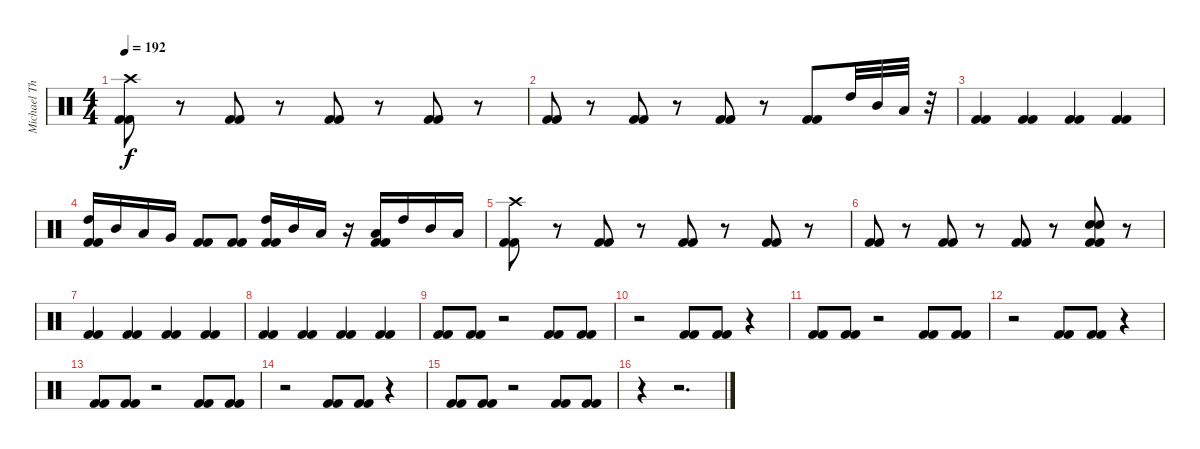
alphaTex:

\track ("Michael Thomas" "Michael Th") {instrument percussion}
\staff {score}
\articulation defaults
\ts (4 4)
\tempo 192
\clef neutral
\ks c
("Crash high (hit)" "Kick (hit) 2" "Kick (hit) 2").8{dy f} r.8 ("Kick (hit) 2" "Kick (hit) 2").8 r.8 ("Kick (hit) 2" "Kick (hit) 2").8 r.8 ("Kick (hit) 2" "Kick (hit) 2").8 r.8 |
("Kick (hit) 2" "Kick (hit) 2").8 r.8 ("Kick (hit) 2" "Kick (hit) 2").8 r.8 ("Kick (hit) 2" "Kick (hit) 2").8 r.8 ("Kick (hit) 2" "Kick (hit) 2").8 "High Tom (hit)".32 "Mid Tom (hit)".32 "Low Tom (hit)".32 r.32 |
("Kick (hit) 2" "Kick (hit) 2").4 ("Kick (hit) 2" "Kick (hit) 2").4 ("Kick (hit) 2" "Kick (hit) 2").4 ("Kick (hit) 2" "Kick (hit) 2").4 |
("High Tom (hit)" "Kick (hit) 2" "Kick (hit) 2").16 "Mid Tom (hit)".16 "Low Tom (hit)".16 "Very Low Tom (hit)".16 ("Kick (hit) 2" "Kick (hit) 2").8 ("Kick (hit) 2" "Kick (hit) 2").8 ("High Tom (hit)" "Kick (hit) 2" "Kick (hit) 2").16 "Mid Tom (hit)".16 "Low Tom (hit)".16 r.16 ("Low Floor Tom (hit)" "Kick (hit) 2" "Kick (hit) 2").16 "High Tom (hit)".16 "Mid Tom (hit)".16 "Low Tom (hit)".16 |
("Crash high (hit)" "Kick (hit) 2" "Kick (hit) 2").8 r.8 ("Kick (hit) 2" "Kick (hit) 2").8 r.8 ("Kick (hit) 2" "Kick (hit) 2").8 r.8 ("Kick (hit) 2" "Kick (hit) 2").8 r.8 |
("Kick (hit) 2" "Kick (hit) 2").8 r.8 ("Kick (hit) 2" "Kick (hit) 2").8 r.8 ("Kick (hit) 2" "Kick (hit) 2").8 r.8 ("Snare (hit) 2" "Snare (hit) 2" "Kick (hit) 2" "Kick (hit) 2").8 r.8 |
("Kick (hit) 2" "Kick (hit) 2").4 ("Kick (hit) 2" "Kick (hit) 2").4 ("Kick (hit) 2" "Kick (hit) 2").4 ("Kick (hit) 2" "Kick (hit) 2").4 |
("Kick (hit) 2" "Kick (hit) 2").4 ("Kick (hit) 2" "Kick (hit) 2").4 ("Kick (hit) 2" "Kick (hit) 2").4 ("Kick (hit) 2" "Kick (hit) 2").4 |
("Kick (hit) 2" "Kick (hit) 2").8 ("Kick (hit) 2" "Kick (hit) 2").8 r.2 ("Kick (hit) 2" "Kick (hit) 2").8 ("Kick (hit) 2" "Kick (hit) 2").8 |
r.2 ("Kick (hit) 2" "Kick (hit) 2").8 ("Kick (hit) 2" "Kick (hit) 2").8 r.4 |
("Kick (hit) 2" "Kick (hit) 2").8 ("Kick (hit) 2" "Kick (hit) 2").8 r.2 ("Kick (hit) 2" "Kick (hit) 2").8 ("Kick (hit) 2" "Kick (hit) 2").8 |
r.2 ("Kick (hit) 2" "Kick (hit) 2").8 ("Kick (hit) 2" "Kick (hit) 2").8 r.4 |
("Kick (hit) 2" "Kick (hit) 2").8 ("Kick (hit) 2" "Kick (hit) 2").8 r.2 ("Kick (hit) 2" "Kick (hit) 2").8 ("Kick (hit) 2" "Kick (hit) 2").8 |
r.2 ("Kick (hit) 2" "Kick (hit) 2").8 ("Kick (hit) 2" "Kick (hit) 2").8 r.4 |
("Kick (hit) 2" "Kick (hit) 2").8 ("Kick (hit) 2" "Kick (hit) 2").8 r.2 ("Kick (hit) 2" "Kick (hit) 2").8 ("Kick (hit) 2" "Kick (hit) 2").8 |
r.4 r.2{d}
